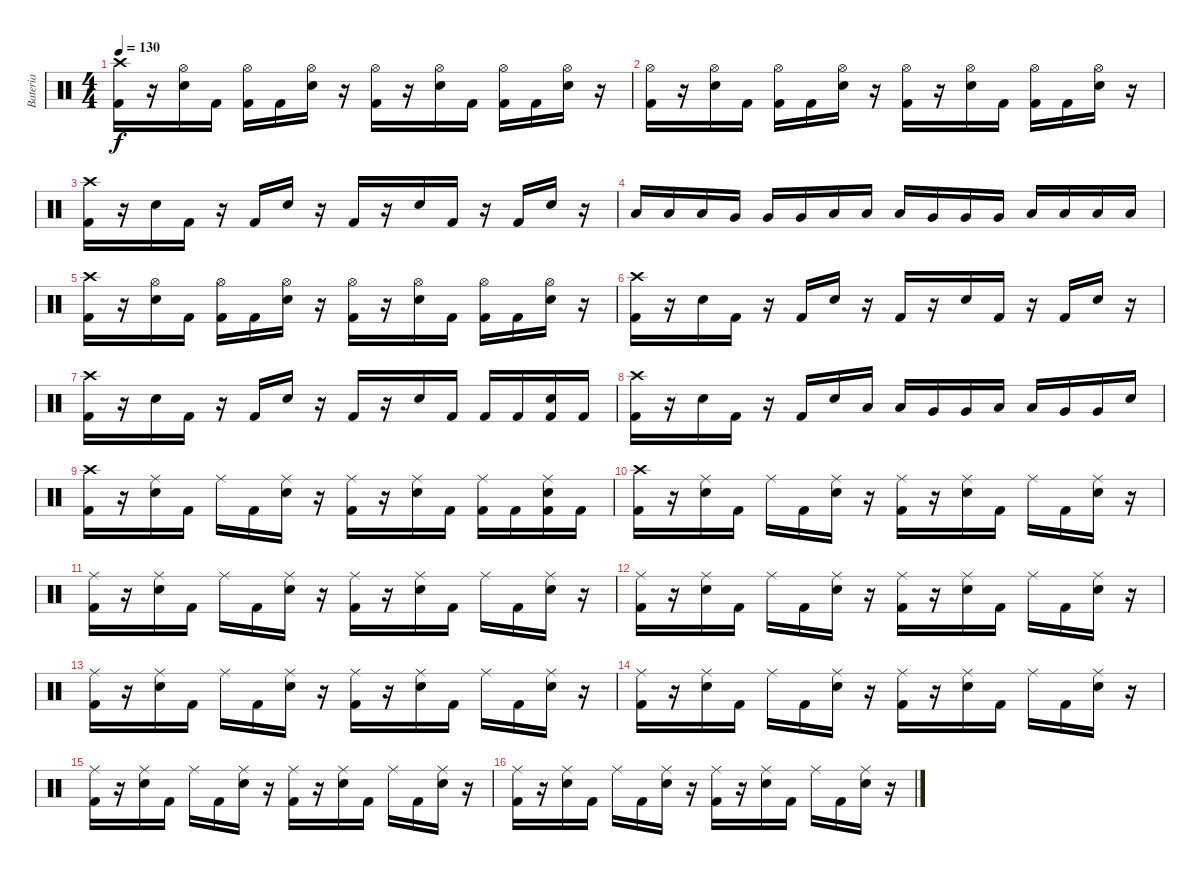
\track ("Bateria" "Bateria") {instrument percussion}
\staff {score}
\articulation defaults
\ts (4 4)
\tempo 130
\clef neutral
\ks c
("Crash high (hit)" "Kick (hit) 2").16{dy f} r.16 ("Hi-Hat (open)" "Snare (hit) 2").16 "Kick (hit) 2".16 ("Hi-Hat (open)" "Kick (hit) 2").16 "Kick (hit) 2".16 ("Hi-Hat (open)" "Snare (hit) 2").16 r.16 ("Hi-Hat (open)" "Kick (hit) 2").16 r.16 ("Hi-Hat (open)" "Snare (hit) 2").16 "Kick (hit) 2".16 ("Hi-Hat (open)" "Kick (hit) 2").16 "Kick (hit) 2".16 ("Hi-Hat (open)" "Snare (hit) 2").16 r.16 |
("Hi-Hat (open)" "Kick (hit) 2").16 r.16 ("Hi-Hat (open)" "Snare (hit) 2").16 "Kick (hit) 2".16 ("Hi-Hat (open)" "Kick (hit) 2").16 "Kick (hit) 2".16 ("Hi-Hat (open)" "Snare (hit) 2").16 r.16 ("Hi-Hat (open)" "Kick (hit) 2").16 r.16 ("Hi-Hat (open)" "Snare (hit) 2").16 "Kick (hit) 2".16 ("Hi-Hat (open)" "Kick (hit) 2").16 "Kick (hit) 2".16 ("Hi-Hat (open)" "Snare (hit) 2").16 r.16 |
("Crash high (hit)" "Kick (hit) 2").16 r.16 "Snare (hit) 2".16 "Kick (hit) 2".16 r.16 "Kick (hit) 2".16 "Snare (hit) 2".16 r.16 "Kick (hit) 2".16 r.16 "Snare (hit) 2".16 "Kick (hit) 2".16 r.16 "Kick (hit) 2".16 "Snare (hit) 2".16 r.16 |
"Low Floor Tom (hit)".16 "Low Floor Tom (hit)".16 "Low Floor Tom (hit)".16 "Very Low Tom (hit)".16 "Very Low Tom (hit)".16 "Very Low Tom (hit)".16 "Low Tom (hit)".16 "Low Tom (hit)".16 "Low Tom (hit)".16 "Very Low Tom (hit)".16 "Very Low Tom (hit)".16 "Very Low Tom (hit)".16 "Low Floor Tom (hit)".16 "Low Floor Tom (hit)".16 "Low Floor Tom (hit)".16 "Low Floor Tom (hit)".16 |
("Crash high (hit)" "Kick (hit) 2").16 r.16 ("Hi-Hat (open)" "Snare (hit) 2").16 "Kick (hit) 2".16 ("Hi-Hat (open)" "Kick (hit) 2").16 "Kick (hit) 2".16 ("Hi-Hat (open)" "Snare (hit) 2").16 r.16 ("Hi-Hat (open)" "Kick (hit) 2").16 r.16 ("Hi-Hat (open)" "Snare (hit) 2").16 "Kick (hit) 2".16 ("Hi-Hat (open)" "Kick (hit) 2").16 "Kick (hit) 2".16 ("Hi-Hat (open)" "Snare (hit) 2").16 r.16 |
("Crash high (hit)" "Kick (hit) 2").16 r.16 "Snare (hit) 2".16 "Kick (hit) 2".16 r.16 "Kick (hit) 2".16 "Snare (hit) 2".16 r.16 "Kick (hit) 2".16 r.16 "Snare (hit) 2".16 "Kick (hit) 2".16 r.16 "Kick (hit) 2".16 "Snare (hit) 2".16 r.16 |
("Crash high (hit)" "Kick (hit) 2").16 r.16 "Snare (hit) 2".16 "Kick (hit) 2".16 r.16 "Kick (hit) 2".16 "Snare (hit) 2".16 r.16 "Kick (hit) 2".16 r.16 "Snare (hit) 2".16 "Kick (hit) 2".16 "Kick (hit) 2".16 "Kick (hit) 2".16 ("Snare (hit) 2" "Kick (hit) 2").16 "Kick (hit) 2".16 |
("Crash high (hit)" "Kick (hit) 2").16 r.16 "Snare (hit) 2".16 "Kick (hit) 2".16 r.16 "Kick (hit) 2".16 "Snare (hit) 2".16 "Low Floor Tom (hit)".16 "Low Floor Tom (hit)".16 "Very Low Tom (hit)".16 "Very Low Tom (hit)".16 "Low Tom (hit)".16 "Low Tom (hit)".16 "Very Low Tom (hit)".16 "Very Low Tom (hit)".16 "Snare (hit) 2".16 |
("Crash high (hit)" "Kick (hit) 2").16 r.16 ("Ride (middle)" "Snare (hit) 2").16 "Kick (hit) 2".16 "Ride (middle)".16 "Kick (hit) 2".16 ("Ride (middle)" "Snare (hit) 2").16 r.16 ("Ride (middle)" "Kick (hit) 2").16 r.16 ("Ride (middle)" "Snare (hit) 2").16 "Kick (hit) 2".16 ("Ride (middle)" "Kick (hit) 2").16 "Kick (hit) 2".16 ("Ride (middle)" "Snare (hit) 2" "Kick (hit) 2").16 "Kick (hit) 2".16 |
("Crash high (hit)" "Kick (hit) 2").16 r.16 ("Ride (middle)" "Snare (hit) 2").16 "Kick (hit) 2".16 "Ride (middle)".16 "Kick (hit) 2".16 ("Ride (middle)" "Snare (hit) 2").16 r.16 ("Ride (middle)" "Kick (hit) 2").16 r.16 ("Ride (middle)" "Snare (hit) 2").16 "Kick (hit) 2".16 "Ride (middle)".16 "Kick (hit) 2".16 ("Ride (middle)" "Snare (hit) 2").16 r.16 |
("Ride (middle)" "Kick (hit) 2").16 r.16 ("Ride (middle)" "Snare (hit) 2").16 "Kick (hit) 2".16 "Ride (middle)".16 "Kick (hit) 2".16 ("Ride (middle)" "Snare (hit) 2").16 r.16 ("Ride (middle)" "Kick (hit) 2").16 r.16 ("Ride (middle)" "Snare (hit) 2").16 "Kick (hit) 2".16 "Ride (middle)".16 "Kick (hit) 2".16 ("Ride (middle)" "Snare (hit) 2").16 r.16 |
("Ride (middle)" "Kick (hit) 2").16 r.16 ("Ride (middle)" "Snare (hit) 2").16 "Kick (hit) 2".16 "Ride (middle)".16 "Kick (hit) 2".16 ("Ride (middle)" "Snare (hit) 2").16 r.16 ("Ride (middle)" "Kick (hit) 2").16 r.16 ("Ride (middle)" "Snare (hit) 2").16 "Kick (hit) 2".16 "Ride (middle)".16 "Kick (hit) 2".16 ("Ride (middle)" "Snare (hit) 2").16 r.16 |
("Ride (middle)" "Kick (hit) 2").16 r.16 ("Ride (middle)" "Snare (hit) 2").16 "Kick (hit) 2".16 "Ride (middle)".16 "Kick (hit) 2".16 ("Ride (middle)" "Snare (hit) 2").16 r.16 ("Ride (middle)" "Kick (hit) 2").16 r.16 ("Ride (middle)" "Snare (hit) 2").16 "Kick (hit) 2".16 "Ride (middle)".16 "Kick (hit) 2".16 ("Ride (middle)" "Snare (hit) 2").16 r.16 |
("Ride (middle)" "Kick (hit) 2").16 r.16 ("Ride (middle)" "Snare (hit) 2").16 "Kick (hit) 2".16 "Ride (middle)".16 "Kick (hit) 2".16 ("Ride (middle)" "Snare (hit) 2").16 r.16 ("Ride (middle)" "Kick (hit) 2").16 r.16 ("Ride (middle)" "Snare (hit) 2").16 "Kick (hit) 2".16 "Ride (middle)".16 "Kick (hit) 2".16 ("Ride (middle)" "Snare (hit) 2").16 r.16 |
("Ride (middle)" "Kick (hit) 2").16 r.16 ("Ride (middle)" "Snare (hit) 2").16 "Kick (hit) 2".16 "Ride (middle)".16 "Kick (hit) 2".16 ("Ride (middle)" "Snare (hit) 2").16 r.16 ("Ride (middle)" "Kick (hit) 2").16 r.16 ("Ride (middle)" "Snare (hit) 2").16 "Kick (hit) 2".16 "Ride (middle)".16 "Kick (hit) 2".16 ("Ride (middle)" "Snare (hit) 2").16 r.16 |
("Ride (middle)" "Kick (hit) 2").16 r.16 ("Ride (middle)" "Snare (hit) 2").16 "Kick (hit) 2".16 "Ride (middle)".16 "Kick (hit) 2".16 ("Ride (middle)" "Snare (hit) 2").16 r.16 ("Ride (middle)" "Kick (hit) 2").16 r.16 ("Ride (middle)" "Snare (hit) 2").16 "Kick (hit) 2".16 "Ride (middle)".16 "Kick (hit) 2".16 ("Ride (middle)" "Snare (hit) 2").16 r.16
